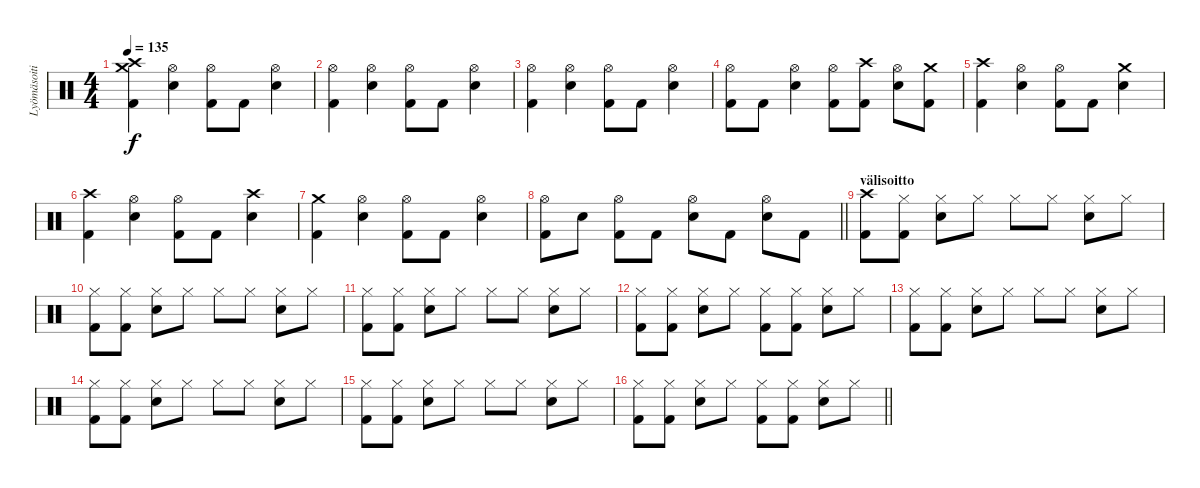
\track ("Lyömäsoitin" "Lyömäsoiti") {instrument percussion}
\staff {score}
\articulation defaults
\ts (4 4)
\tempo 135
\clef neutral
\ks c
("Crash high (hit)" "Crash medium (hit)" "Kick (hit) 2").4{dy f} ("Hi-Hat (open)" "Electric Snare (hit)").4 ("Hi-Hat (open)" "Kick (hit) 2").8 "Kick (hit) 2".8 ("Hi-Hat (open)" "Electric Snare (hit)").4 |
("Hi-Hat (open)" "Kick (hit) 2").4 ("Hi-Hat (open)" "Electric Snare (hit)").4 ("Hi-Hat (open)" "Kick (hit) 2").8 "Kick (hit) 2".8 ("Hi-Hat (open)" "Electric Snare (hit)").4 |
("Hi-Hat (open)" "Kick (hit) 2").4 ("Hi-Hat (open)" "Electric Snare (hit)").4 ("Hi-Hat (open)" "Kick (hit) 2").8 "Kick (hit) 2".8 ("Hi-Hat (open)" "Electric Snare (hit)").4 |
("Hi-Hat (open)" "Kick (hit) 2").8 "Kick (hit) 2".8 ("Hi-Hat (open)" "Electric Snare (hit)").4 ("Hi-Hat (open)" "Kick (hit) 2").8 ("Crash high (hit)" "Kick (hit) 2").8 ("Hi-Hat (open)" "Electric Snare (hit)").8 ("Crash medium (hit)" "Kick (hit) 2").8 |
("Crash high (hit)" "Kick (hit) 2").4 ("Hi-Hat (open)" "Electric Snare (hit)").4 ("Hi-Hat (open)" "Kick (hit) 2").8 "Kick (hit) 2".8 ("Crash medium (hit)" "Electric Snare (hit)").4 |
("Crash high (hit)" "Kick (hit) 2").4 ("Hi-Hat (open)" "Electric Snare (hit)").4 ("Hi-Hat (open)" "Kick (hit) 2").8 "Kick (hit) 2".8 ("Crash high (hit)" "Electric Snare (hit)").4 |
("Crash medium (hit)" "Kick (hit) 2").4 ("Hi-Hat (open)" "Electric Snare (hit)").4 ("Hi-Hat (open)" "Kick (hit) 2").8 "Kick (hit) 2".8 ("Hi-Hat (open)" "Electric Snare (hit)").4 |
\barLineRight lightlight
("Hi-Hat (open)" "Kick (hit) 2").8 "Electric Snare (hit)".8 ("Hi-Hat (open)" "Kick (hit) 2").8 "Kick (hit) 2".8 ("Hi-Hat (open)" "Electric Snare (hit)").8 "Kick (hit) 2".8 ("Hi-Hat (open)" "Electric Snare (hit)").8 "Kick (hit) 2".8 |
\section ("" "välisoitto")
("Crash high (hit)" "Kick (hit) 2").8 ("Hi-Hat (closed)" "Kick (hit) 2").8 ("Hi-Hat (closed)" "Electric Snare (hit)").8 "Hi-Hat (closed)".8 "Hi-Hat (closed)".8 "Hi-Hat (closed)".8 ("Hi-Hat (closed)" "Electric Snare (hit)").8 "Hi-Hat (closed)".8 |
("Hi-Hat (closed)" "Kick (hit) 2").8 ("Hi-Hat (closed)" "Kick (hit) 2").8 ("Hi-Hat (closed)" "Electric Snare (hit)").8 "Hi-Hat (closed)".8 "Hi-Hat (closed)".8 "Hi-Hat (closed)".8 ("Hi-Hat (closed)" "Electric Snare (hit)").8 "Hi-Hat (closed)".8 |
("Hi-Hat (closed)" "Kick (hit) 2").8 ("Hi-Hat (closed)" "Kick (hit) 2").8 ("Hi-Hat (closed)" "Electric Snare (hit)").8 "Hi-Hat (closed)".8 "Hi-Hat (closed)".8 "Hi-Hat (closed)".8 ("Hi-Hat (closed)" "Electric Snare (hit)").8 "Hi-Hat (closed)".8 |
("Hi-Hat (closed)" "Kick (hit) 2").8 ("Hi-Hat (closed)" "Kick (hit) 2").8 ("Hi-Hat (closed)" "Electric Snare (hit)").8 "Hi-Hat (closed)".8 ("Hi-Hat (closed)" "Kick (hit) 2").8 ("Hi-Hat (closed)" "Kick (hit) 2").8 ("Hi-Hat (closed)" "Electric Snare (hit)").8 "Hi-Hat (closed)".8 |
("Hi-Hat (closed)" "Kick (hit) 2").8 ("Hi-Hat (closed)" "Kick (hit) 2").8 ("Hi-Hat (closed)" "Electric Snare (hit)").8 "Hi-Hat (closed)".8 "Hi-Hat (closed)".8 "Hi-Hat (closed)".8 ("Hi-Hat (closed)" "Electric Snare (hit)").8 "Hi-Hat (closed)".8 |
("Hi-Hat (closed)" "Kick (hit) 2").8 ("Hi-Hat (closed)" "Kick (hit) 2").8 ("Hi-Hat (closed)" "Electric Snare (hit)").8 "Hi-Hat (closed)".8 "Hi-Hat (closed)".8 "Hi-Hat (closed)".8 ("Hi-Hat (closed)" "Electric Snare (hit)").8 "Hi-Hat (closed)".8 |
("Hi-Hat (closed)" "Kick (hit) 2").8 ("Hi-Hat (closed)" "Kick (hit) 2").8 ("Hi-Hat (closed)" "Electric Snare (hit)").8 "Hi-Hat (closed)".8 "Hi-Hat (closed)".8 "Hi-Hat (closed)".8 ("Hi-Hat (closed)" "Electric Snare (hit)").8 "Hi-Hat (closed)".8 |
\barLineRight lightlight
("Hi-Hat (closed)" "Kick (hit) 2").8 ("Hi-Hat (closed)" "Kick (hit) 2").8 ("Hi-Hat (closed)" "Electric Snare (hit)").8 "Hi-Hat (closed)".8 ("Hi-Hat (closed)" "Kick (hit) 2").8 ("Hi-Hat (closed)" "Kick (hit) 2").8 ("Hi-Hat (closed)" "Electric Snare (hit)").8 "Hi-Hat (closed)".8
